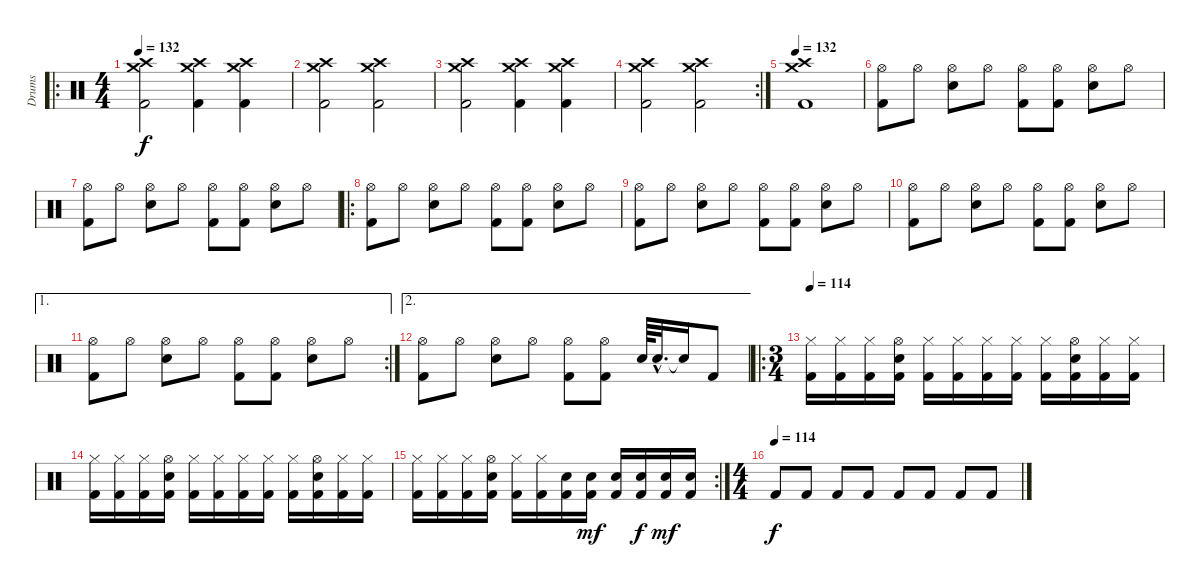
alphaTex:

\track ("Drums" "Drums") {instrument percussion}
\staff {score}
\articulation defaults
\ro
\ts (4 4)
\tempo 132
\tempo 80
\tempo 132
\clef neutral
\ks c
("Crash medium (hit)" "Crash high (hit)" "Kick (hit) 2").2{dy f} ("Crash medium (hit)" "Crash high (hit)" "Kick (hit) 2").4 ("Crash medium (hit)" "Crash high (hit)" "Kick (hit) 2").4 |
("Crash medium (hit)" "Crash high (hit)" "Kick (hit) 2").2 ("Crash medium (hit)" "Crash high (hit)" "Kick (hit) 2").2 |
("Crash medium (hit)" "Crash high (hit)" "Kick (hit) 2").2 ("Crash medium (hit)" "Crash high (hit)" "Kick (hit) 2").4 ("Crash medium (hit)" "Crash high (hit)" "Kick (hit) 2").4 |
\rc 2
("Crash medium (hit)" "Crash high (hit)" "Kick (hit) 2").2 ("Crash medium (hit)" "Crash high (hit)" "Kick (hit) 2").2 |
\tempo 132
("Crash medium (hit)" "Crash high (hit)" "Kick (hit) 2").1 |
("Hi-Hat (open)" "Kick (hit) 2").8 "Hi-Hat (open)".8 ("Hi-Hat (open)" "Snare (hit) 2").8 "Hi-Hat (open)".8 ("Hi-Hat (open)" "Kick (hit) 2").8 ("Hi-Hat (open)" "Kick (hit) 2").8 ("Hi-Hat (open)" "Snare (hit) 2").8 "Hi-Hat (open)".8 |
("Hi-Hat (open)" "Kick (hit) 2").8 "Hi-Hat (open)".8 ("Hi-Hat (open)" "Snare (hit) 2").8 "Hi-Hat (open)".8 ("Hi-Hat (open)" "Kick (hit) 2").8 ("Hi-Hat (open)" "Kick (hit) 2").8 ("Hi-Hat (open)" "Snare (hit) 2").8 "Hi-Hat (open)".8 |
\ro
("Hi-Hat (open)" "Kick (hit) 2").8 "Hi-Hat (open)".8 ("Hi-Hat (open)" "Snare (hit) 2").8 "Hi-Hat (open)".8 ("Hi-Hat (open)" "Kick (hit) 2").8 ("Hi-Hat (open)" "Kick (hit) 2").8 ("Hi-Hat (open)" "Snare (hit) 2").8 "Hi-Hat (open)".8 |
("Hi-Hat (open)" "Kick (hit) 2").8 "Hi-Hat (open)".8 ("Hi-Hat (open)" "Snare (hit) 2").8 "Hi-Hat (open)".8 ("Hi-Hat (open)" "Kick (hit) 2").8 ("Hi-Hat (open)" "Kick (hit) 2").8 ("Hi-Hat (open)" "Snare (hit) 2").8 "Hi-Hat (open)".8 |
("Hi-Hat (open)" "Kick (hit) 2").8 "Hi-Hat (open)".8 ("Hi-Hat (open)" "Snare (hit) 2").8 "Hi-Hat (open)".8 ("Hi-Hat (open)" "Kick (hit) 2").8 ("Hi-Hat (open)" "Kick (hit) 2").8 ("Hi-Hat (open)" "Snare (hit) 2").8 "Hi-Hat (open)".8 |
\ae 1
\rc 2
("Hi-Hat (open)" "Kick (hit) 2").8 "Hi-Hat (open)".8 ("Hi-Hat (open)" "Snare (hit) 2").8 "Hi-Hat (open)".8 ("Hi-Hat (open)" "Kick (hit) 2").8 ("Hi-Hat (open)" "Kick (hit) 2").8 ("Hi-Hat (open)" "Snare (hit) 2").8 "Hi-Hat (open)".8 |
\ae 2
("Hi-Hat (open)" "Kick (hit) 2").8 "Hi-Hat (open)".8 ("Hi-Hat (open)" "Snare (hit) 2").8 "Hi-Hat (open)".8 ("Hi-Hat (open)" "Kick (hit) 2").8 ("Hi-Hat (open)" "Kick (hit) 2").8 "Snare (hit) 2".64 "Snare (hit) 2"{hac}.32{d} "Snare (hit)"{t}.16 "Kick (hit) 2".8 |
\ro
\ts (3 4)
\tempo 114
("Hi-Hat (closed)" "Kick (hit) 2").16 ("Hi-Hat (closed)" "Kick (hit) 2").16 ("Hi-Hat (closed)" "Kick (hit) 2").16 ("Hi-Hat (open)" "Snare (hit) 2" "Kick (hit) 2").16 ("Hi-Hat (closed)" "Kick (hit) 2").16 ("Hi-Hat (closed)" "Kick (hit) 2").16 ("Hi-Hat (closed)" "Kick (hit) 2").16 ("Hi-Hat (closed)" "Kick (hit) 2").16 ("Hi-Hat (closed)" "Kick (hit) 2").16 ("Hi-Hat (open)" "Snare (hit) 2" "Kick (hit) 2").16 ("Hi-Hat (closed)" "Kick (hit) 2").16 ("Hi-Hat (closed)" "Kick (hit) 2").16 |
("Hi-Hat (closed)" "Kick (hit) 2").16 ("Hi-Hat (closed)" "Kick (hit) 2").16 ("Hi-Hat (closed)" "Kick (hit) 2").16 ("Hi-Hat (open)" "Snare (hit) 2" "Kick (hit) 2").16 ("Hi-Hat (closed)" "Kick (hit) 2").16 ("Hi-Hat (closed)" "Kick (hit) 2").16 ("Hi-Hat (closed)" "Kick (hit) 2").16 ("Hi-Hat (closed)" "Kick (hit) 2").16 ("Hi-Hat (closed)" "Kick (hit) 2").16 ("Hi-Hat (open)" "Snare (hit) 2" "Kick (hit) 2").16 ("Hi-Hat (closed)" "Kick (hit) 2").16 ("Hi-Hat (closed)" "Kick (hit) 2").16 |
\rc 2
("Hi-Hat (closed)" "Kick (hit) 2").16 ("Hi-Hat (closed)" "Kick (hit) 2").16 ("Hi-Hat (closed)" "Kick (hit) 2").16 ("Hi-Hat (open)" "Snare (hit) 2" "Kick (hit) 2").16 ("Hi-Hat (closed)" "Kick (hit) 2").16 ("Hi-Hat (closed)" "Kick (hit) 2").16 ("Snare (hit) 2" "Kick (hit) 2").16 ("Snare (hit) 2" "Kick (hit) 2").16{dy mf} ("Snare (hit) 2" "Kick (hit) 2").16 ("Snare (hit) 2" "Kick (hit) 2").16{dy f} ("Snare (hit) 2" "Kick (hit) 2").16{dy mf} ("Snare (hit) 2" "Kick (hit) 2").16 |
\ts (4 4)
\tempo (114)
"Kick (hit) 2".8{dy f} "Kick (hit) 2".8 "Kick (hit) 2".8 "Kick (hit) 2".8 "Kick (hit) 2".8 "Kick (hit) 2".8 "Kick (hit) 2".8 "Kick (hit) 2".8
